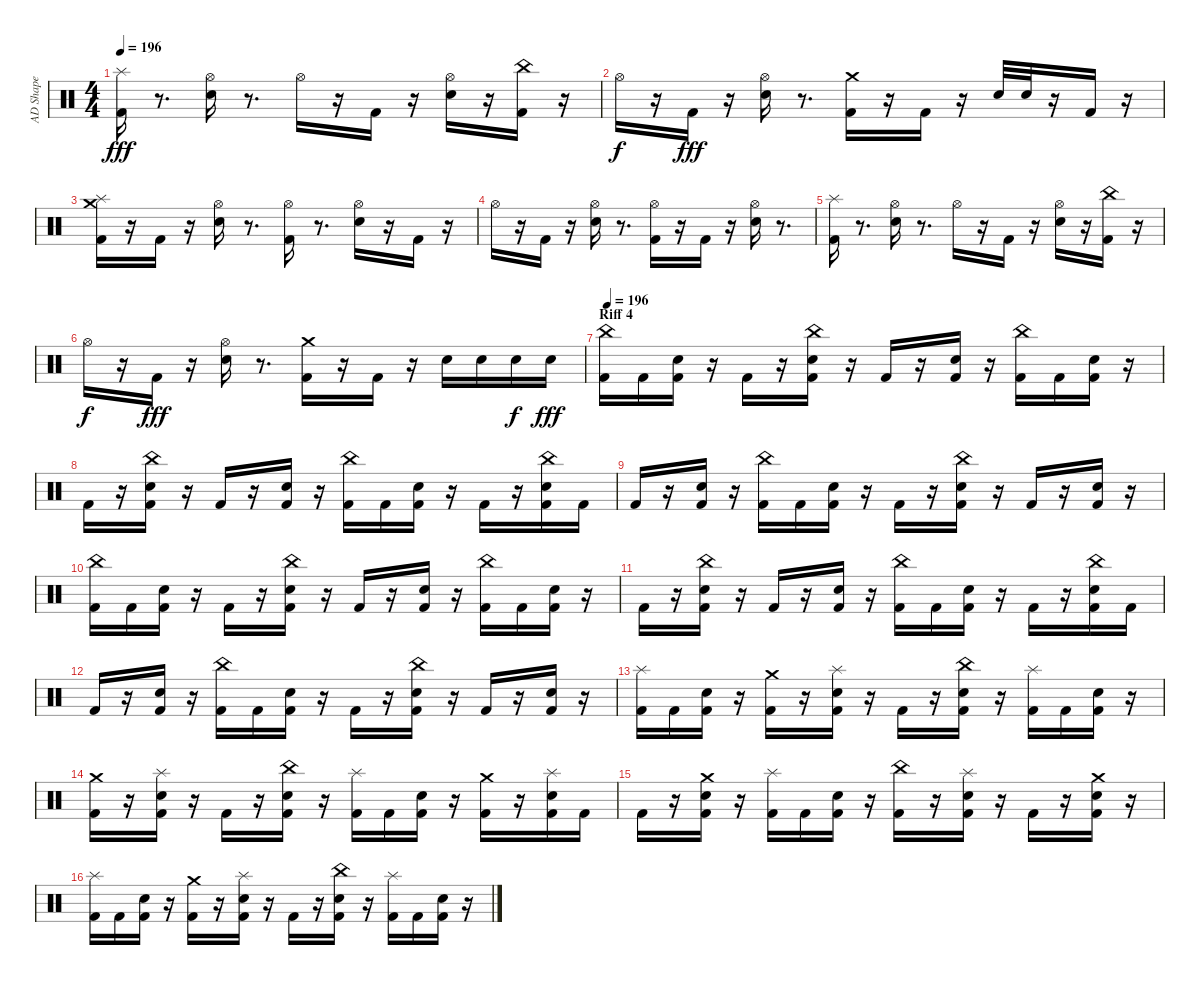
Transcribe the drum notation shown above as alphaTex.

\track ("AD Shape" "AD Shape") {instrument percussion}
\staff {score}
\articulation defaults
\ts (4 4)
\tempo 196
\clef neutral
\ks c
("Kick (hit) 2" "Splash (hit)").16{dy fff} r.8{d} ("Snare (hit) 2" "Hi-Hat (open)").16 r.8{d} "Hi-Hat (open)".16 r.16 "Kick (hit) 2".16 r.16 ("Snare (hit) 2" "Hi-Hat (open)").16 r.16 ("Kick (hit) 2" "China (hit)").16 r.16 |
"Hi-Hat (open)".16{dy f} r.16 "Kick (hit) 2".16{dy fff} r.16 ("Snare (hit) 2" "Hi-Hat (open)").16 r.8{d} ("Kick (hit) 2" "Crash medium (hit)").16 r.16 "Kick (hit) 2".16 r.16 "Snare (hit) 2".32 "Snare (hit) 2".32 r.16 "Kick (hit) 2".16 r.16 |
("Kick (hit) 2" "Splash (hit)" "Crash medium (hit)").16 r.16 "Kick (hit) 2".16 r.16 ("Snare (hit) 2" "Hi-Hat (open)").16 r.8{d} ("Kick (hit) 2" "Hi-Hat (open)").16 r.8{d} ("Snare (hit) 2" "Hi-Hat (open)").16 r.16 "Kick (hit) 2".16 r.16 |
"Hi-Hat (open)".16 r.16 "Kick (hit) 2".16 r.16 ("Snare (hit) 2" "Hi-Hat (open)").16 r.8{d} ("Kick (hit) 2" "Hi-Hat (open)").16 r.16 "Kick (hit) 2".16 r.16 ("Snare (hit) 2" "Hi-Hat (open)").16 r.8{d} |
("Kick (hit) 2" "Splash (hit)").16 r.8{d} ("Snare (hit) 2" "Hi-Hat (open)").16 r.8{d} "Hi-Hat (open)".16 r.16 "Kick (hit) 2".16 r.16 ("Snare (hit) 2" "Hi-Hat (open)").16 r.16 ("Kick (hit) 2" "China (hit)").16 r.16 |
"Hi-Hat (open)".16{dy f} r.16 "Kick (hit) 2".16{dy fff} r.16 ("Snare (hit) 2" "Hi-Hat (open)").16 r.8{d} ("Kick (hit) 2" "Crash medium (hit)").16 r.16 "Kick (hit) 2".16 r.16 "Snare (hit) 2".16 "Snare (hit) 2".16 "Snare (hit) 2".16{dy f} "Snare (hit) 2".16{dy fff} |
\section ("" "Riff 4")
\tempo 196
("Kick (hit) 2" "China (hit)").16 "Kick (hit) 2".16 ("Kick (hit) 2" "Snare (hit) 2").16 r.16 "Kick (hit) 2".16 r.16 ("Kick (hit) 2" "Snare (hit) 2" "China (hit)").16 r.16 "Kick (hit) 2".16 r.16 ("Kick (hit) 2" "Snare (hit) 2").16 r.16 ("Kick (hit) 2" "China (hit)").16 "Kick (hit) 2".16 ("Kick (hit) 2" "Snare (hit) 2").16 r.16 |
"Kick (hit) 2".16 r.16 ("Kick (hit) 2" "Snare (hit) 2" "China (hit)").16 r.16 "Kick (hit) 2".16 r.16 ("Kick (hit) 2" "Snare (hit) 2").16 r.16 ("Kick (hit) 2" "China (hit)").16 "Kick (hit) 2".16 ("Kick (hit) 2" "Snare (hit) 2").16 r.16 "Kick (hit) 2".16 r.16 ("Kick (hit) 2" "Snare (hit) 2" "China (hit)").16 "Kick (hit) 2".16 |
"Kick (hit) 2".16 r.16 ("Kick (hit) 2" "Snare (hit) 2").16 r.16 ("Kick (hit) 2" "China (hit)").16 "Kick (hit) 2".16 ("Kick (hit) 2" "Snare (hit) 2").16 r.16 "Kick (hit) 2".16 r.16 ("Kick (hit) 2" "Snare (hit) 2" "China (hit)").16 r.16 "Kick (hit) 2".16 r.16 ("Kick (hit) 2" "Snare (hit) 2").16 r.16 |
("Kick (hit) 2" "China (hit)").16 "Kick (hit) 2".16 ("Kick (hit) 2" "Snare (hit) 2").16 r.16 "Kick (hit) 2".16 r.16 ("Kick (hit) 2" "Snare (hit) 2" "China (hit)").16 r.16 "Kick (hit) 2".16 r.16 ("Kick (hit) 2" "Snare (hit) 2").16 r.16 ("Kick (hit) 2" "China (hit)").16 "Kick (hit) 2".16 ("Kick (hit) 2" "Snare (hit) 2").16 r.16 |
"Kick (hit) 2".16 r.16 ("Kick (hit) 2" "Snare (hit) 2" "China (hit)").16 r.16 "Kick (hit) 2".16 r.16 ("Kick (hit) 2" "Snare (hit) 2").16 r.16 ("Kick (hit) 2" "China (hit)").16 "Kick (hit) 2".16 ("Kick (hit) 2" "Snare (hit) 2").16 r.16 "Kick (hit) 2".16 r.16 ("Kick (hit) 2" "Snare (hit) 2" "China (hit)").16 "Kick (hit) 2".16 |
"Kick (hit) 2".16 r.16 ("Kick (hit) 2" "Snare (hit) 2").16 r.16 ("Kick (hit) 2" "China (hit)").16 "Kick (hit) 2".16 ("Kick (hit) 2" "Snare (hit) 2").16 r.16 "Kick (hit) 2".16 r.16 ("Kick (hit) 2" "Snare (hit) 2" "China (hit)").16 r.16 "Kick (hit) 2".16 r.16 ("Kick (hit) 2" "Snare (hit) 2").16 r.16 |
("Kick (hit) 2" "Splash (hit)").16 "Kick (hit) 2".16 ("Kick (hit) 2" "Snare (hit) 2").16 r.16 ("Kick (hit) 2" "Crash medium (hit)").16 r.16 ("Kick (hit) 2" "Snare (hit) 2" "Splash (hit)").16 r.16 "Kick (hit) 2".16 r.16 ("Kick (hit) 2" "Snare (hit) 2" "China (hit)").16 r.16 ("Kick (hit) 2" "Splash (hit)").16 "Kick (hit) 2".16 ("Kick (hit) 2" "Snare (hit) 2").16 r.16 |
("Kick (hit) 2" "Crash medium (hit)").16 r.16 ("Kick (hit) 2" "Snare (hit) 2" "Splash (hit)").16 r.16 "Kick (hit) 2".16 r.16 ("Kick (hit) 2" "Snare (hit) 2" "China (hit)").16 r.16 ("Kick (hit) 2" "Splash (hit)").16 "Kick (hit) 2".16 ("Kick (hit) 2" "Snare (hit) 2").16 r.16 ("Kick (hit) 2" "Crash medium (hit)").16 r.16 ("Kick (hit) 2" "Snare (hit) 2" "Splash (hit)").16 "Kick (hit) 2".16 |
"Kick (hit) 2".16 r.16 ("Kick (hit) 2" "Snare (hit) 2" "Crash medium (hit)").16 r.16 ("Kick (hit) 2" "Splash (hit)").16 "Kick (hit) 2".16 ("Kick (hit) 2" "Snare (hit) 2").16 r.16 ("Kick (hit) 2" "China (hit)").16 r.16 ("Kick (hit) 2" "Snare (hit) 2" "Splash (hit)").16 r.16 "Kick (hit) 2".16 r.16 ("Kick (hit) 2" "Snare (hit) 2" "Crash medium (hit)").16 r.16 |
("Kick (hit) 2" "Splash (hit)").16 "Kick (hit) 2".16 ("Kick (hit) 2" "Snare (hit) 2").16 r.16 ("Kick (hit) 2" "Crash medium (hit)").16 r.16 ("Kick (hit) 2" "Snare (hit) 2" "Splash (hit)").16 r.16 "Kick (hit) 2".16 r.16 ("Kick (hit) 2" "Snare (hit) 2" "China (hit)").16 r.16 ("Kick (hit) 2" "Splash (hit)").16 "Kick (hit) 2".16 ("Kick (hit) 2" "Snare (hit) 2").16 r.16
